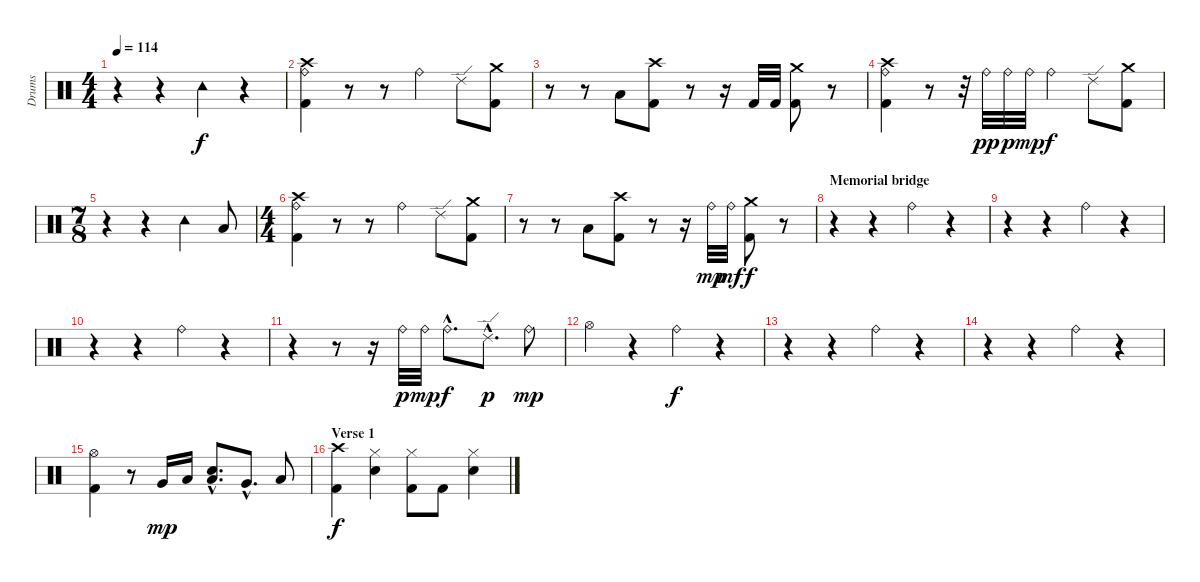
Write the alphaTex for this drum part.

\track ("Drums" "Drums") {instrument percussion}
\staff {score}
\articulation defaults
\ts (4 4)
\tempo 114
\clef neutral
\ks c
r.4{dy f} r.4 "Tambourine (hit)".4 r.4 |
("Kick (hit) 2" "Ride (bell)" "Crash high (hit)").4 r.8 r.8 "Ride (bell)".4 "Ride (edge) 2".8 ("Kick (hit) 2" "Crash medium (hit)").8 |
r.8 r.8 "Low Floor Tom (hit)".8 ("Kick (hit) 2" "Crash high (hit)").8 r.8 r.16 "Kick (hit) 2".32 "Kick (hit) 2".32 ("Kick (hit) 2" "Crash medium (hit)").8 r.8 |
("Kick (hit) 2" "Ride (bell)" "Crash high (hit)").4 r.8 r.32 "Ride (bell)".32{dy pp} "Ride (bell)".32{dy p} "Ride (bell)".32{dy mp} "Ride (bell)".4{dy f} "Ride (edge) 2".8 ("Kick (hit) 2" "Crash medium (hit)").8 |
\ts (7 8)
r.4 r.4 "Tambourine (hit)".4 "Low Floor Tom (hit)".8 |
\ts (4 4)
("Kick (hit) 2" "Ride (bell)" "Crash high (hit)").4 r.8 r.8 "Ride (bell)".4 "Ride (edge) 2".8 ("Kick (hit) 2" "Crash medium (hit)").8 |
r.8 r.8 "Low Floor Tom (hit)".8 ("Kick (hit) 2" "Crash high (hit)").8 r.8 r.16 "Ride (bell)".32{dy mp} "Ride (bell)".32{dy mf} ("Kick (hit) 2" "Crash medium (hit)").8{dy f} r.8 |
\section ("" "Memorial bridge")
r.4 r.4 "Ride (bell)".4 r.4 |
r.4 r.4 "Ride (bell)".4 r.4 |
r.4 r.4 "Ride (bell)".4 r.4 |
r.4 r.8 r.16 "Ride (bell)".32{dy p} "Ride (bell)".32{dy mp} "Ride (bell)"{hac}.8{d dy f} "Ride (edge) 2"{hac}.8{d dy p} "Ride (bell)".8{dy mp} |
"Hi-Hat (open)".4 r.4 "Ride (bell)".4{dy f} r.4 |
r.4 r.4 "Ride (bell)".4 r.4 |
r.4 r.4 "Ride (bell)".4 r.4 |
("Kick (hit) 2" "Hi-Hat (open)").4 r.8 "Very Low Tom (hit)".16{dy mp} "Low Floor Tom (hit)".16 ("Electric Snare (hit)"{hac} "Low Tom (hit)"{hac}).8{d} "Very Low Tom (hit)"{hac}.8{d} "Low Floor Tom (hit)".8 |
\section ("" "Verse 1")
("Kick (hit) 2" "Crash high (hit)").4{dy f} ("Electric Snare (hit)" "Hi-Hat (closed)").4 ("Kick (hit) 2" "Hi-Hat (closed)").8 "Kick (hit) 2".8 ("Electric Snare (hit)" "Hi-Hat (closed)").4
